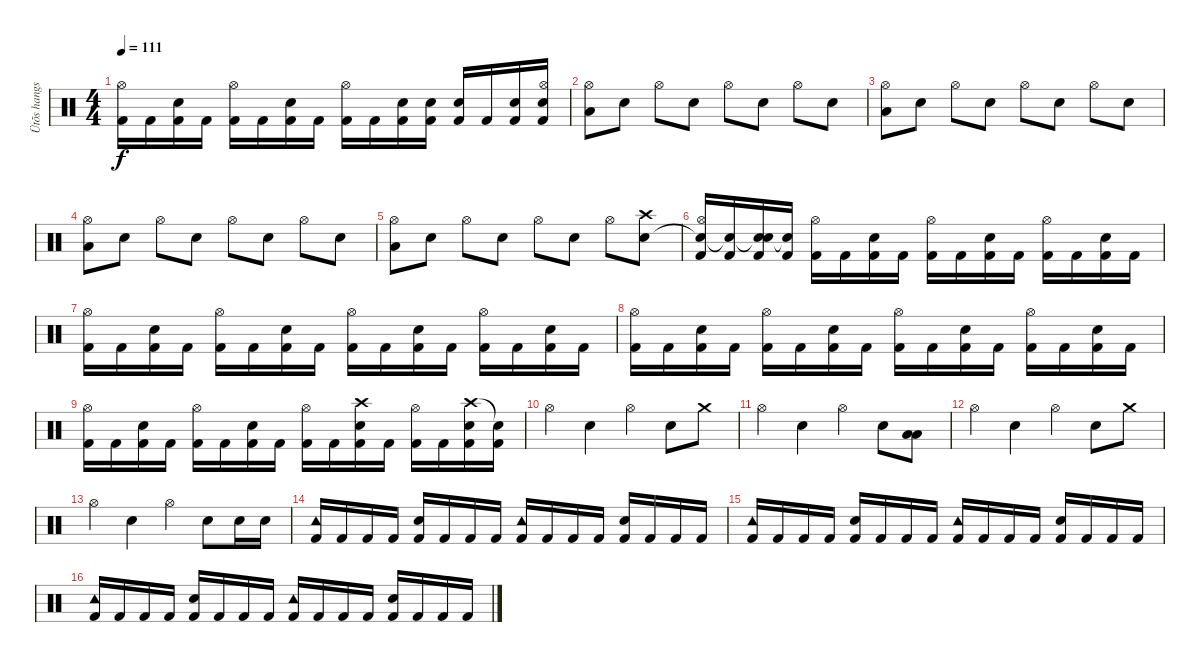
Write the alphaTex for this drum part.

\track ("Ütõs hangszer" "Ütõs hangs") {instrument percussion}
\staff {score}
\articulation defaults
\ts (4 4)
\tempo 111
\clef neutral
\ks c
("Kick (hit) 2" "Hi-Hat (open)").16{dy f} "Kick (hit) 2".16 ("Kick (hit) 2" "Electric Snare (hit)").16 "Kick (hit) 2".16 ("Kick (hit) 2" "Hi-Hat (open)").16 "Kick (hit) 2".16 ("Kick (hit) 2" "Electric Snare (hit)").16 "Kick (hit) 2".16 ("Kick (hit) 2" "Hi-Hat (open)").16 "Kick (hit) 2".16 ("Kick (hit) 2" "Electric Snare (hit)").16 ("Kick (hit) 2" "Electric Snare (hit)").16 ("Kick (hit) 2" "Electric Snare (hit)").16 "Kick (hit) 2".16 ("Kick (hit) 2" "Electric Snare (hit)").16 ("Kick (hit) 2" "Hi-Hat (open)" "Electric Snare (hit)").16 |
("Hi-Hat (open)" "Low Floor Tom (hit)").8 "Electric Snare (hit)".8 "Hi-Hat (open)".8 "Electric Snare (hit)".8 "Hi-Hat (open)".8 "Electric Snare (hit)".8 "Hi-Hat (open)".8 "Electric Snare (hit)".8 |
("Hi-Hat (open)" "Low Floor Tom (hit)").8 "Electric Snare (hit)".8 "Hi-Hat (open)".8 "Electric Snare (hit)".8 "Hi-Hat (open)".8 "Electric Snare (hit)".8 "Hi-Hat (open)".8 "Electric Snare (hit)".8 |
("Hi-Hat (open)" "Low Floor Tom (hit)").8 "Electric Snare (hit)".8 "Hi-Hat (open)".8 "Electric Snare (hit)".8 "Hi-Hat (open)".8 "Electric Snare (hit)".8 "Hi-Hat (open)".8 "Electric Snare (hit)".8 |
("Hi-Hat (open)" "Low Floor Tom (hit)").8 "Electric Snare (hit)".8 "Hi-Hat (open)".8 "Electric Snare (hit)".8 "Hi-Hat (open)".8 "Electric Snare (hit)".8 "Hi-Hat (open)".8 ("Crash high (hit)" "Electric Snare (hit)").8 |
("Kick (hit) 2" "Snare (hit)"{t} "Hi-Hat (open)").16 ("Kick (hit) 2" "Snare (hit)"{t}).16 ("Kick (hit) 2" "Snare (hit)"{t} "Electric Snare (hit)").16 ("Kick (hit) 2" "Snare (hit)"{t}).16 ("Kick (hit) 2" "Hi-Hat (open)").16 "Kick (hit) 2".16 ("Kick (hit) 2" "Electric Snare (hit)").16 "Kick (hit) 2".16 ("Kick (hit) 2" "Hi-Hat (open)").16 "Kick (hit) 2".16 ("Kick (hit) 2" "Electric Snare (hit)").16 "Kick (hit) 2".16 ("Kick (hit) 2" "Hi-Hat (open)").16 "Kick (hit) 2".16 ("Kick (hit) 2" "Electric Snare (hit)").16 "Kick (hit) 2".16 |
("Kick (hit) 2" "Hi-Hat (open)").16 "Kick (hit) 2".16 ("Kick (hit) 2" "Electric Snare (hit)").16 "Kick (hit) 2".16 ("Kick (hit) 2" "Hi-Hat (open)").16 "Kick (hit) 2".16 ("Kick (hit) 2" "Electric Snare (hit)").16 "Kick (hit) 2".16 ("Kick (hit) 2" "Hi-Hat (open)").16 "Kick (hit) 2".16 ("Kick (hit) 2" "Electric Snare (hit)").16 "Kick (hit) 2".16 ("Kick (hit) 2" "Hi-Hat (open)").16 "Kick (hit) 2".16 ("Kick (hit) 2" "Electric Snare (hit)").16 "Kick (hit) 2".16 |
("Kick (hit) 2" "Hi-Hat (open)").16 "Kick (hit) 2".16 ("Kick (hit) 2" "Electric Snare (hit)").16 "Kick (hit) 2".16 ("Kick (hit) 2" "Hi-Hat (open)").16 "Kick (hit) 2".16 ("Kick (hit) 2" "Electric Snare (hit)").16 "Kick (hit) 2".16 ("Kick (hit) 2" "Hi-Hat (open)").16 "Kick (hit) 2".16 ("Kick (hit) 2" "Electric Snare (hit)").16 "Kick (hit) 2".16 ("Kick (hit) 2" "Hi-Hat (open)").16 "Kick (hit) 2".16 ("Kick (hit) 2" "Electric Snare (hit)").16 "Kick (hit) 2".16 |
("Kick (hit) 2" "Hi-Hat (open)").16 "Kick (hit) 2".16 ("Kick (hit) 2" "Electric Snare (hit)").16 "Kick (hit) 2".16 ("Kick (hit) 2" "Hi-Hat (open)").16 "Kick (hit) 2".16 ("Kick (hit) 2" "Electric Snare (hit)").16 "Kick (hit) 2".16 ("Kick (hit) 2" "Hi-Hat (open)").16 "Kick (hit) 2".16 ("Kick (hit) 2" "Crash high (hit)" "Electric Snare (hit)").16 "Kick (hit) 2".16 ("Kick (hit) 2" "Hi-Hat (open)").16 "Kick (hit) 2".16 ("Kick (hit) 2" "Crash high (hit)" "Electric Snare (hit)").16 ("Kick (hit) 2" "Snare (hit)"{t}).16 |
"Hi-Hat (open)".4 "Electric Snare (hit)".4 "Hi-Hat (open)".4 "Electric Snare (hit)".8 "Crash medium (hit)".8 |
"Hi-Hat (open)".4 "Electric Snare (hit)".4 "Hi-Hat (open)".4 "Electric Snare (hit)".8 ("Low Floor Tom (hit)" "Low Floor Tom (hit)").8 |
"Hi-Hat (open)".4 "Electric Snare (hit)".4 "Hi-Hat (open)".4 "Electric Snare (hit)".8 "Crash medium (hit)".8 |
"Hi-Hat (open)".4 "Electric Snare (hit)".4 "Hi-Hat (open)".4 "Electric Snare (hit)".8 "Electric Snare (hit)".16 "Electric Snare (hit)".16 |
("Kick (hit) 2" "Tambourine (hit)").16 "Kick (hit) 2".16 "Kick (hit) 2".16 "Kick (hit) 2".16 ("Kick (hit) 2" "Electric Snare (hit)").16 "Kick (hit) 2".16 "Kick (hit) 2".16 "Kick (hit) 2".16 ("Kick (hit) 2" "Tambourine (hit)").16 "Kick (hit) 2".16 "Kick (hit) 2".16 "Kick (hit) 2".16 ("Kick (hit) 2" "Electric Snare (hit)").16 "Kick (hit) 2".16 "Kick (hit) 2".16 "Kick (hit) 2".16 |
("Kick (hit) 2" "Tambourine (hit)").16 "Kick (hit) 2".16 "Kick (hit) 2".16 "Kick (hit) 2".16 ("Kick (hit) 2" "Electric Snare (hit)").16 "Kick (hit) 2".16 "Kick (hit) 2".16 "Kick (hit) 2".16 ("Kick (hit) 2" "Tambourine (hit)").16 "Kick (hit) 2".16 "Kick (hit) 2".16 "Kick (hit) 2".16 ("Kick (hit) 2" "Electric Snare (hit)").16 "Kick (hit) 2".16 "Kick (hit) 2".16 "Kick (hit) 2".16 |
("Kick (hit) 2" "Tambourine (hit)").16 "Kick (hit) 2".16 "Kick (hit) 2".16 "Kick (hit) 2".16 ("Kick (hit) 2" "Electric Snare (hit)").16 "Kick (hit) 2".16 "Kick (hit) 2".16 "Kick (hit) 2".16 ("Kick (hit) 2" "Tambourine (hit)").16 "Kick (hit) 2".16 "Kick (hit) 2".16 "Kick (hit) 2".16 ("Kick (hit) 2" "Electric Snare (hit)").16 "Kick (hit) 2".16 "Kick (hit) 2".16 "Kick (hit) 2".16
